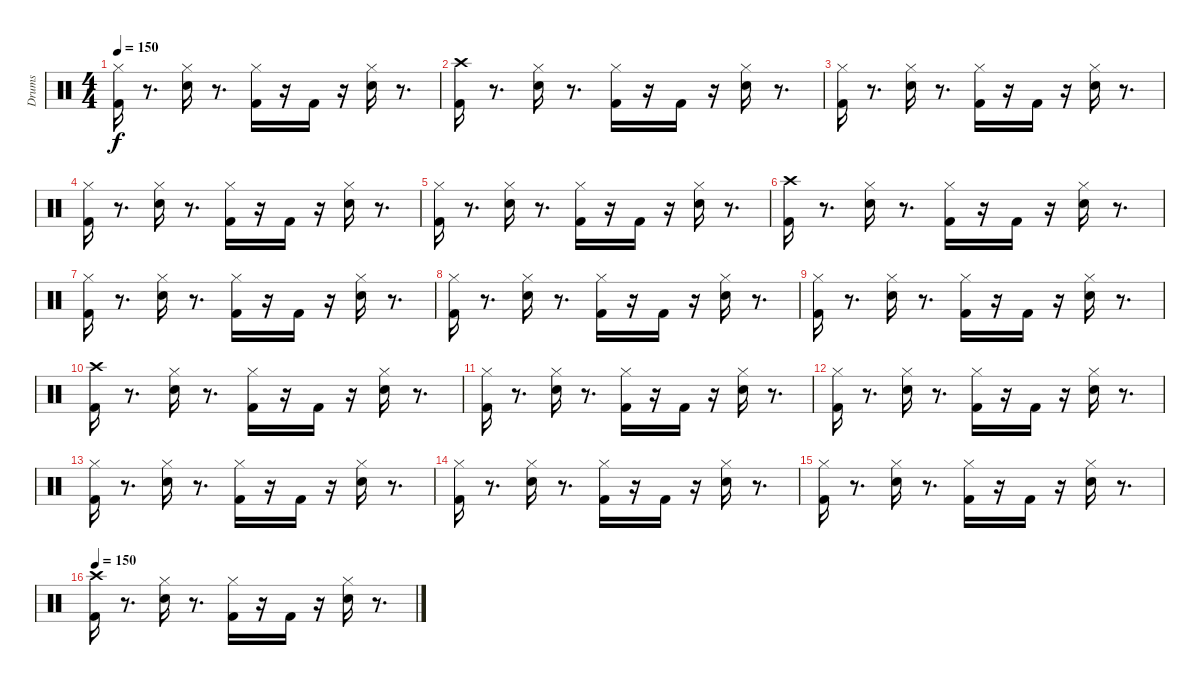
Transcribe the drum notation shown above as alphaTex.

\track ("Drums" "Drums") {instrument percussion}
\staff {score}
\articulation defaults
\ts (4 4)
\tempo 150
\clef neutral
\ks c
("Hi-Hat (closed)" "Kick (hit) 2").16{dy f} r.8{d} ("Hi-Hat (closed)" "Electric Snare (hit)").16 r.8{d} ("Hi-Hat (closed)" "Kick (hit) 2").16 r.16 "Kick (hit) 2".16 r.16 ("Hi-Hat (closed)" "Electric Snare (hit)").16 r.8{d} |
("Crash high (hit)" "Kick (hit) 2").16 r.8{d} ("Hi-Hat (closed)" "Electric Snare (hit)").16 r.8{d} ("Hi-Hat (closed)" "Kick (hit) 2").16 r.16 "Kick (hit) 2".16 r.16 ("Hi-Hat (closed)" "Electric Snare (hit)").16 r.8{d} |
("Hi-Hat (closed)" "Kick (hit) 2").16 r.8{d} ("Hi-Hat (closed)" "Electric Snare (hit)").16 r.8{d} ("Hi-Hat (closed)" "Kick (hit) 2").16 r.16 "Kick (hit) 2".16 r.16 ("Hi-Hat (closed)" "Electric Snare (hit)").16 r.8{d} |
("Hi-Hat (closed)" "Kick (hit) 2").16 r.8{d} ("Hi-Hat (closed)" "Electric Snare (hit)").16 r.8{d} ("Hi-Hat (closed)" "Kick (hit) 2").16 r.16 "Kick (hit) 2".16 r.16 ("Hi-Hat (closed)" "Electric Snare (hit)").16 r.8{d} |
("Hi-Hat (closed)" "Kick (hit) 2").16 r.8{d} ("Hi-Hat (closed)" "Electric Snare (hit)").16 r.8{d} ("Hi-Hat (closed)" "Kick (hit) 2").16 r.16 "Kick (hit) 2".16 r.16 ("Hi-Hat (closed)" "Electric Snare (hit)").16 r.8{d} |
("Crash high (hit)" "Kick (hit) 2").16 r.8{d} ("Hi-Hat (closed)" "Electric Snare (hit)").16 r.8{d} ("Hi-Hat (closed)" "Kick (hit) 2").16 r.16 "Kick (hit) 2".16 r.16 ("Hi-Hat (closed)" "Electric Snare (hit)").16 r.8{d} |
("Hi-Hat (closed)" "Kick (hit) 2").16 r.8{d} ("Hi-Hat (closed)" "Electric Snare (hit)").16 r.8{d} ("Hi-Hat (closed)" "Kick (hit) 2").16 r.16 "Kick (hit) 2".16 r.16 ("Hi-Hat (closed)" "Electric Snare (hit)").16 r.8{d} |
("Hi-Hat (closed)" "Kick (hit) 2").16 r.8{d} ("Hi-Hat (closed)" "Electric Snare (hit)").16 r.8{d} ("Hi-Hat (closed)" "Kick (hit) 2").16 r.16 "Kick (hit) 2".16 r.16 ("Hi-Hat (closed)" "Electric Snare (hit)").16 r.8{d} |
("Hi-Hat (closed)" "Kick (hit) 2").16 r.8{d} ("Hi-Hat (closed)" "Electric Snare (hit)").16 r.8{d} ("Hi-Hat (closed)" "Kick (hit) 2").16 r.16 "Kick (hit) 2".16 r.16 ("Hi-Hat (closed)" "Electric Snare (hit)").16 r.8{d} |
("Crash high (hit)" "Kick (hit) 2").16 r.8{d} ("Hi-Hat (closed)" "Electric Snare (hit)").16 r.8{d} ("Hi-Hat (closed)" "Kick (hit) 2").16 r.16 "Kick (hit) 2".16 r.16 ("Hi-Hat (closed)" "Electric Snare (hit)").16 r.8{d} |
("Hi-Hat (closed)" "Kick (hit) 2").16 r.8{d} ("Hi-Hat (closed)" "Electric Snare (hit)").16 r.8{d} ("Hi-Hat (closed)" "Kick (hit) 2").16 r.16 "Kick (hit) 2".16 r.16 ("Hi-Hat (closed)" "Electric Snare (hit)").16 r.8{d} |
("Hi-Hat (closed)" "Kick (hit) 2").16 r.8{d} ("Hi-Hat (closed)" "Electric Snare (hit)").16 r.8{d} ("Hi-Hat (closed)" "Kick (hit) 2").16 r.16 "Kick (hit) 2".16 r.16 ("Hi-Hat (closed)" "Electric Snare (hit)").16 r.8{d} |
("Hi-Hat (closed)" "Kick (hit) 2").16 r.8{d} ("Hi-Hat (closed)" "Electric Snare (hit)").16 r.8{d} ("Hi-Hat (closed)" "Kick (hit) 2").16 r.16 "Kick (hit) 2".16 r.16 ("Hi-Hat (closed)" "Electric Snare (hit)").16 r.8{d} |
("Hi-Hat (closed)" "Kick (hit) 2").16 r.8{d} ("Hi-Hat (closed)" "Electric Snare (hit)").16 r.8{d} ("Hi-Hat (closed)" "Kick (hit) 2").16 r.16 "Kick (hit) 2".16 r.16 ("Hi-Hat (closed)" "Electric Snare (hit)").16 r.8{d} |
("Hi-Hat (closed)" "Kick (hit) 2").16 r.8{d} ("Hi-Hat (closed)" "Electric Snare (hit)").16 r.8{d} ("Hi-Hat (closed)" "Kick (hit) 2").16 r.16 "Kick (hit) 2".16 r.16 ("Hi-Hat (closed)" "Electric Snare (hit)").16 r.8{d} |
\tempo 150
("Crash high (hit)" "Kick (hit) 2").16 r.8{d} ("Hi-Hat (closed)" "Electric Snare (hit)").16 r.8{d} ("Hi-Hat (closed)" "Kick (hit) 2").16 r.16 "Kick (hit) 2".16 r.16 ("Hi-Hat (closed)" "Electric Snare (hit)").16 r.8{d}
